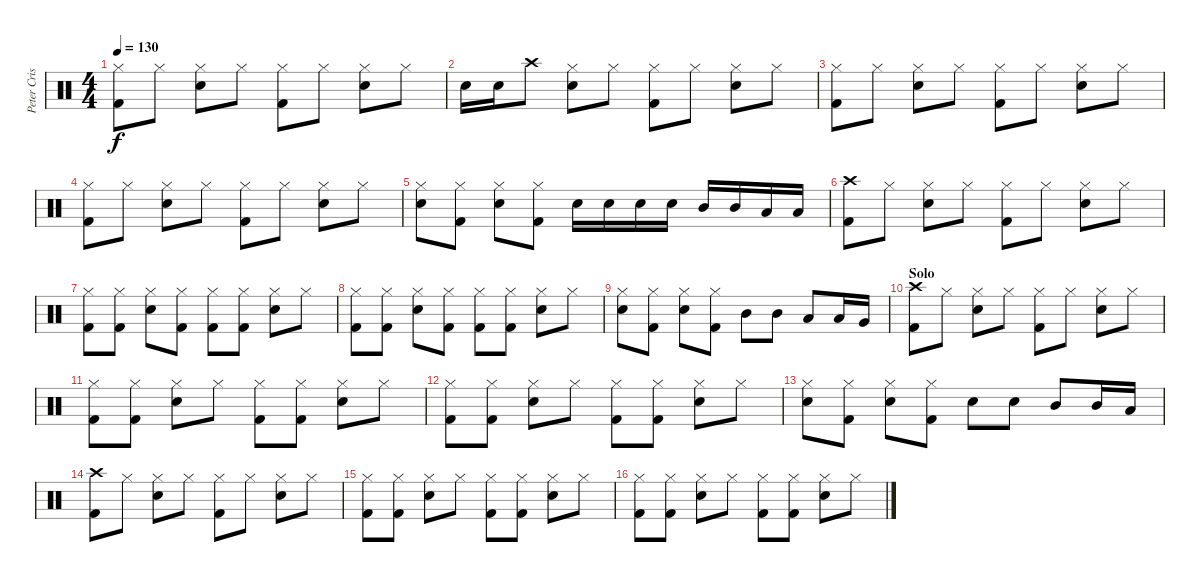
\track ("Peter Criss" "Peter Cris") {instrument percussion}
\staff {score}
\articulation defaults
\ts (4 4)
\tempo 130
\clef neutral
\ks c
("Hi-Hat (closed)" "Kick (hit) 2").8{dy f} "Hi-Hat (closed)".8 ("Hi-Hat (closed)" "Electric Snare (hit)").8 "Hi-Hat (closed)".8 ("Hi-Hat (closed)" "Kick (hit) 2").8 "Hi-Hat (closed)".8 ("Hi-Hat (closed)" "Electric Snare (hit)").8 "Hi-Hat (closed)".8 |
"Electric Snare (hit)".16 "Electric Snare (hit)".16 "Crash high (hit)".8 ("Hi-Hat (closed)" "Electric Snare (hit)").8 "Hi-Hat (closed)".8 ("Hi-Hat (closed)" "Kick (hit) 2").8 "Hi-Hat (closed)".8 ("Hi-Hat (closed)" "Electric Snare (hit)").8 "Hi-Hat (closed)".8 |
("Hi-Hat (closed)" "Kick (hit) 2").8 "Hi-Hat (closed)".8 ("Hi-Hat (closed)" "Electric Snare (hit)").8 "Hi-Hat (closed)".8 ("Hi-Hat (closed)" "Kick (hit) 2").8 "Hi-Hat (closed)".8 ("Hi-Hat (closed)" "Electric Snare (hit)").8 "Hi-Hat (closed)".8 |
("Hi-Hat (closed)" "Kick (hit) 2").8 "Hi-Hat (closed)".8 ("Hi-Hat (closed)" "Electric Snare (hit)").8 "Hi-Hat (closed)".8 ("Hi-Hat (closed)" "Kick (hit) 2").8 "Hi-Hat (closed)".8 ("Hi-Hat (closed)" "Electric Snare (hit)").8 "Hi-Hat (closed)".8 |
("Hi-Hat (closed)" "Electric Snare (hit)").8 ("Hi-Hat (closed)" "Kick (hit) 2").8 ("Hi-Hat (closed)" "Electric Snare (hit)").8 ("Hi-Hat (closed)" "Kick (hit) 2").8 "Electric Snare (hit)".16 "Electric Snare (hit)".16 "Electric Snare (hit)".16 "Electric Snare (hit)".16 "Mid Tom (hit)".16 "Mid Tom (hit)".16 "Low Tom (hit)".16 "Low Tom (hit)".16 |
("Crash high (hit)" "Kick (hit) 2").8 "Hi-Hat (closed)".8 ("Hi-Hat (closed)" "Electric Snare (hit)").8 "Hi-Hat (closed)".8 ("Hi-Hat (closed)" "Kick (hit) 2").8 "Hi-Hat (closed)".8 ("Hi-Hat (closed)" "Electric Snare (hit)").8 "Hi-Hat (closed)".8 |
("Hi-Hat (closed)" "Kick (hit) 2").8 ("Hi-Hat (closed)" "Kick (hit) 2").8 ("Hi-Hat (closed)" "Electric Snare (hit)").8 ("Hi-Hat (closed)" "Kick (hit) 2").8 ("Hi-Hat (closed)" "Kick (hit) 2").8 ("Hi-Hat (closed)" "Kick (hit) 2").8 ("Hi-Hat (closed)" "Electric Snare (hit)").8 "Hi-Hat (closed)".8 |
("Hi-Hat (closed)" "Kick (hit) 2").8 ("Hi-Hat (closed)" "Kick (hit) 2").8 ("Hi-Hat (closed)" "Electric Snare (hit)").8 ("Hi-Hat (closed)" "Kick (hit) 2").8 ("Hi-Hat (closed)" "Kick (hit) 2").8 ("Hi-Hat (closed)" "Kick (hit) 2").8 ("Hi-Hat (closed)" "Electric Snare (hit)").8 "Hi-Hat (closed)".8 |
("Hi-Hat (closed)" "Electric Snare (hit)").8 ("Hi-Hat (closed)" "Kick (hit) 2").8 ("Hi-Hat (closed)" "Electric Snare (hit)").8 ("Hi-Hat (closed)" "Kick (hit) 2").8 "Mid Tom (hit)".8 "Mid Tom (hit)".8 "Low Tom (hit)".8 "Low Tom (hit)".16 "Very Low Tom (hit)".16 |
\section ("" "Solo")
("Crash high (hit)" "Kick (hit) 2").8 "Hi-Hat (closed)".8 ("Hi-Hat (closed)" "Electric Snare (hit)").8 "Hi-Hat (closed)".8 ("Hi-Hat (closed)" "Kick (hit) 2").8 "Hi-Hat (closed)".8 ("Hi-Hat (closed)" "Electric Snare (hit)").8 "Hi-Hat (closed)".8 |
("Hi-Hat (closed)" "Kick (hit) 2").8 ("Hi-Hat (closed)" "Kick (hit) 2").8 ("Hi-Hat (closed)" "Electric Snare (hit)").8 "Hi-Hat (closed)".8 ("Hi-Hat (closed)" "Kick (hit) 2").8 ("Hi-Hat (closed)" "Kick (hit) 2").8 ("Hi-Hat (closed)" "Electric Snare (hit)").8 "Hi-Hat (closed)".8 |
("Hi-Hat (closed)" "Kick (hit) 2").8 ("Hi-Hat (closed)" "Kick (hit) 2").8 ("Hi-Hat (closed)" "Electric Snare (hit)").8 "Hi-Hat (closed)".8 ("Hi-Hat (closed)" "Kick (hit) 2").8 ("Hi-Hat (closed)" "Kick (hit) 2").8 ("Hi-Hat (closed)" "Electric Snare (hit)").8 "Hi-Hat (closed)".8 |
("Hi-Hat (closed)" "Electric Snare (hit)").8 ("Hi-Hat (closed)" "Kick (hit) 2").8 ("Hi-Hat (closed)" "Electric Snare (hit)").8 ("Hi-Hat (closed)" "Kick (hit) 2").8 "Electric Snare (hit)".8 "Electric Snare (hit)".8 "Mid Tom (hit)".8 "Mid Tom (hit)".16 "Low Tom (hit)".16 |
("Crash high (hit)" "Kick (hit) 2").8 "Hi-Hat (closed)".8 ("Hi-Hat (closed)" "Electric Snare (hit)").8 "Hi-Hat (closed)".8 ("Hi-Hat (closed)" "Kick (hit) 2").8 "Hi-Hat (closed)".8 ("Hi-Hat (closed)" "Electric Snare (hit)").8 "Hi-Hat (closed)".8 |
("Hi-Hat (closed)" "Kick (hit) 2").8 ("Hi-Hat (closed)" "Kick (hit) 2").8 ("Hi-Hat (closed)" "Electric Snare (hit)").8 "Hi-Hat (closed)".8 ("Hi-Hat (closed)" "Kick (hit) 2").8 ("Hi-Hat (closed)" "Kick (hit) 2").8 ("Hi-Hat (closed)" "Electric Snare (hit)").8 "Hi-Hat (closed)".8 |
("Hi-Hat (closed)" "Kick (hit) 2").8 ("Hi-Hat (closed)" "Kick (hit) 2").8 ("Hi-Hat (closed)" "Electric Snare (hit)").8 "Hi-Hat (closed)".8 ("Hi-Hat (closed)" "Kick (hit) 2").8 ("Hi-Hat (closed)" "Kick (hit) 2").8 ("Hi-Hat (closed)" "Electric Snare (hit)").8 "Hi-Hat (closed)".8
